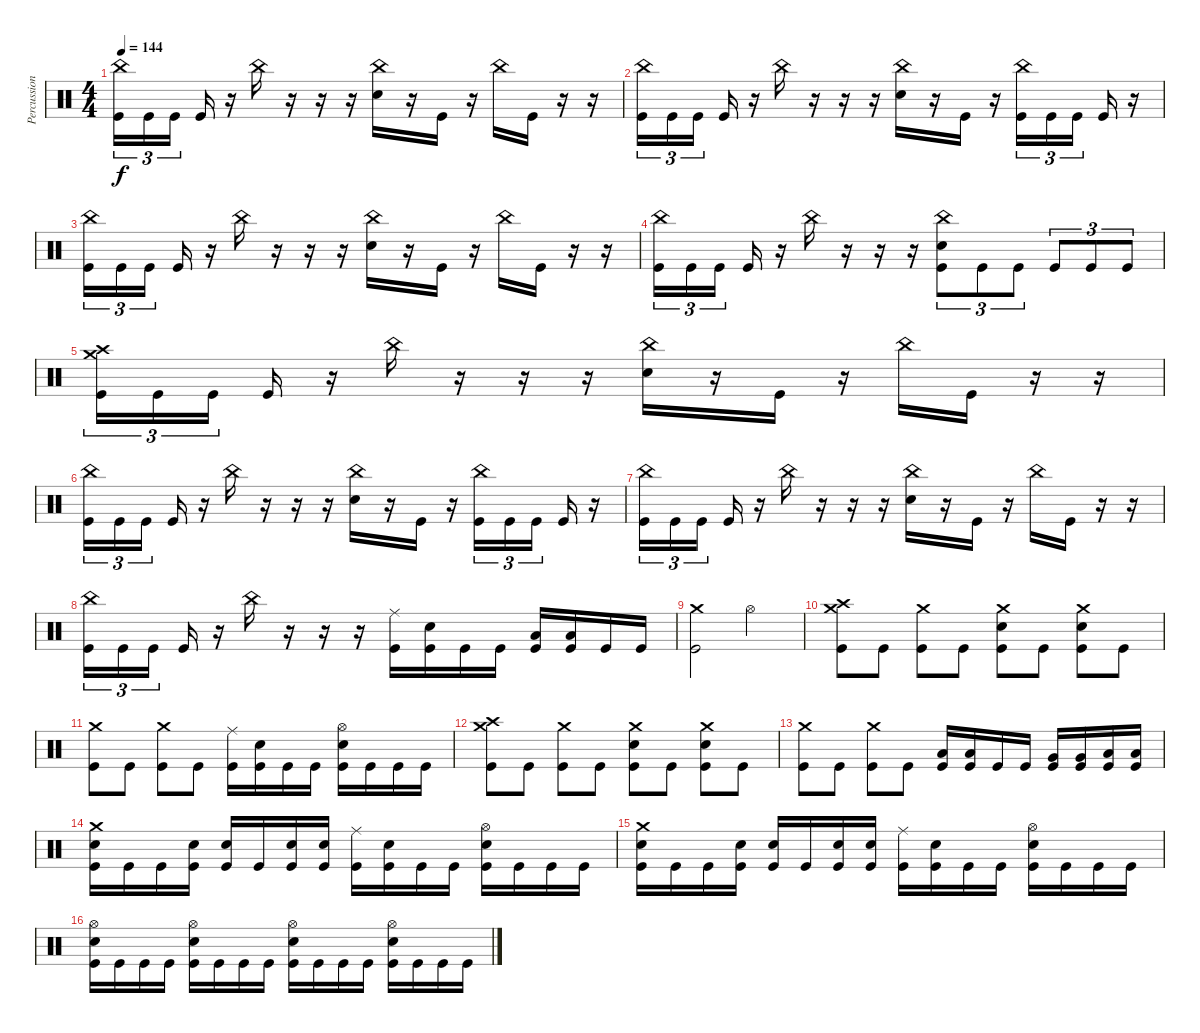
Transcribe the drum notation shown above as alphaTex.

\track ("Percussion" "Percussion") {instrument percussion}
\staff {score}
\articulation defaults
\ts (4 4)
\tempo 144
\clef neutral
\ks c
("China (hit)" "Kick (hit)").16{tu (3 2) dy f} "Kick (hit)".16{tu (3 2)} "Kick (hit)".16{tu (3 2) beam splitsecondary} "Kick (hit)".16 r.16 "China (hit)".16 r.16 r.16 r.16 ("China (hit)" "Electric Snare (hit)").16 r.16 "Kick (hit)".16 r.16 "China (hit)".16 "Kick (hit)".16 r.16 r.16 |
("China (hit)" "Kick (hit)").16{tu (3 2)} "Kick (hit)".16{tu (3 2)} "Kick (hit)".16{tu (3 2) beam splitsecondary} "Kick (hit)".16 r.16 "China (hit)".16 r.16 r.16 r.16 ("China (hit)" "Electric Snare (hit)").16 r.16 "Kick (hit)".16 r.16 ("China (hit)" "Kick (hit)").16{tu (3 2)} "Kick (hit)".16{tu (3 2)} "Kick (hit)".16{tu (3 2) beam splitsecondary} "Kick (hit)".16 r.16 |
("China (hit)" "Kick (hit)").16{tu (3 2)} "Kick (hit)".16{tu (3 2)} "Kick (hit)".16{tu (3 2) beam splitsecondary} "Kick (hit)".16 r.16 "China (hit)".16 r.16 r.16 r.16 ("China (hit)" "Electric Snare (hit)").16 r.16 "Kick (hit)".16 r.16 "China (hit)".16 "Kick (hit)".16 r.16 r.16 |
("China (hit)" "Kick (hit)").16{tu (3 2)} "Kick (hit)".16{tu (3 2)} "Kick (hit)".16{tu (3 2) beam splitsecondary} "Kick (hit)".16 r.16 "China (hit)".16 r.16 r.16 r.16 ("China (hit)" "Electric Snare (hit)" "Kick (hit)").8{tu (3 2)} "Kick (hit)".8{tu (3 2)} "Kick (hit)".8{tu (3 2)} "Kick (hit)".8{tu (3 2)} "Kick (hit)".8{tu (3 2)} "Kick (hit)".8{tu (3 2)} |
("Crash high (hit)" "Crash medium (hit)" "Kick (hit)").16{tu (3 2)} "Kick (hit)".16{tu (3 2)} "Kick (hit)".16{tu (3 2) beam splitsecondary} "Kick (hit)".16 r.16 "China (hit)".16 r.16 r.16 r.16 ("China (hit)" "Electric Snare (hit)").16 r.16 "Kick (hit)".16 r.16 "China (hit)".16 "Kick (hit)".16 r.16 r.16 |
("China (hit)" "Kick (hit)").16{tu (3 2)} "Kick (hit)".16{tu (3 2)} "Kick (hit)".16{tu (3 2) beam splitsecondary} "Kick (hit)".16 r.16 "China (hit)".16 r.16 r.16 r.16 ("China (hit)" "Electric Snare (hit)").16 r.16 "Kick (hit)".16 r.16 ("China (hit)" "Kick (hit)").16{tu (3 2)} "Kick (hit)".16{tu (3 2)} "Kick (hit)".16{tu (3 2) beam splitsecondary} "Kick (hit)".16 r.16 |
("China (hit)" "Kick (hit)").16{tu (3 2)} "Kick (hit)".16{tu (3 2)} "Kick (hit)".16{tu (3 2) beam splitsecondary} "Kick (hit)".16 r.16 "China (hit)".16 r.16 r.16 r.16 ("China (hit)" "Electric Snare (hit)").16 r.16 "Kick (hit)".16 r.16 "China (hit)".16 "Kick (hit)".16 r.16 r.16 |
("China (hit)" "Kick (hit)").16{tu (3 2)} "Kick (hit)".16{tu (3 2)} "Kick (hit)".16{tu (3 2) beam splitsecondary} "Kick (hit)".16 r.16 "China (hit)".16 r.16 r.16 r.16 ("Ride (middle)" "Kick (hit)").16 ("Electric Snare (hit)" "Kick (hit)").16 "Kick (hit)".16 "Kick (hit)".16 ("Low Tom (hit)" "Kick (hit)").16 ("Low Tom (hit)" "Kick (hit)").16 "Kick (hit)".16 "Kick (hit)".16 |
("Crash medium (hit)" "Kick (hit)").2 "Hi-Hat (open)".2 |
("Crash medium (hit)" "Crash high (hit)" "Kick (hit)").8 "Kick (hit)".8 ("Crash medium (hit)" "Kick (hit)").8 "Kick (hit)".8 ("Crash medium (hit)" "Electric Snare (hit)" "Kick (hit)").8 "Kick (hit)".8 ("Crash medium (hit)" "Electric Snare (hit)" "Kick (hit)").8 "Kick (hit)".8 |
("Crash medium (hit)" "Kick (hit)").8 "Kick (hit)".8 ("Crash medium (hit)" "Kick (hit)").8 "Kick (hit)".8 ("Ride (middle)" "Kick (hit)").16 ("Electric Snare (hit)" "Kick (hit)").16 "Kick (hit)".16 "Kick (hit)".16 ("Hi-Hat (open)" "Electric Snare (hit)" "Kick (hit)").16 "Kick (hit)".16 "Kick (hit)".16 "Kick (hit)".16 |
("Crash medium (hit)" "Crash high (hit)" "Kick (hit)").8 "Kick (hit)".8 ("Crash medium (hit)" "Kick (hit)").8 "Kick (hit)".8 ("Crash medium (hit)" "Electric Snare (hit)" "Kick (hit)").8 "Kick (hit)".8 ("Crash medium (hit)" "Electric Snare (hit)" "Kick (hit)").8 "Kick (hit)".8 |
("Crash medium (hit)" "Kick (hit)").8 "Kick (hit)".8 ("Crash medium (hit)" "Kick (hit)").8 "Kick (hit)".8 ("Low Tom (hit)" "Kick (hit)").16 ("Low Tom (hit)" "Kick (hit)").16 "Kick (hit)".16 "Kick (hit)".16 ("Very Low Tom (hit)" "Kick (hit)").16 ("Very Low Tom (hit)" "Kick (hit)").16 ("Low Floor Tom (hit)" "Kick (hit)").16 ("Low Floor Tom (hit)" "Kick (hit)").16 |
("Crash medium (hit)" "Electric Snare (hit)" "Kick (hit)").16 "Kick (hit)".16 "Kick (hit)".16 ("Electric Snare (hit)" "Kick (hit)").16 ("Electric Snare (hit)" "Kick (hit)").16 "Kick (hit)".16 ("Electric Snare (hit)" "Kick (hit)").16 ("Electric Snare (hit)" "Kick (hit)").16 ("Ride (middle)" "Kick (hit)").16 ("Electric Snare (hit)" "Kick (hit)").16 "Kick (hit)".16 "Kick (hit)".16 ("Hi-Hat (open)" "Electric Snare (hit)" "Kick (hit)").16 "Kick (hit)".16 "Kick (hit)".16 "Kick (hit)".16 |
("Crash medium (hit)" "Electric Snare (hit)" "Kick (hit)").16 "Kick (hit)".16 "Kick (hit)".16 ("Electric Snare (hit)" "Kick (hit)").16 ("Electric Snare (hit)" "Kick (hit)").16 "Kick (hit)".16 ("Electric Snare (hit)" "Kick (hit)").16 ("Electric Snare (hit)" "Kick (hit)").16 ("Ride (middle)" "Kick (hit)").16 ("Electric Snare (hit)" "Kick (hit)").16 "Kick (hit)".16 "Kick (hit)".16 ("Hi-Hat (open)" "Electric Snare (hit)" "Kick (hit)").16 "Kick (hit)".16 "Kick (hit)".16 "Kick (hit)".16 |
("Hi-Hat (open)" "Electric Snare (hit)" "Kick (hit)").16 "Kick (hit)".16 "Kick (hit)".16 "Kick (hit)".16 ("Hi-Hat (open)" "Electric Snare (hit)" "Kick (hit)").16 "Kick (hit)".16 "Kick (hit)".16 "Kick (hit)".16 ("Hi-Hat (open)" "Electric Snare (hit)" "Kick (hit)").16 "Kick (hit)".16 "Kick (hit)".16 "Kick (hit)".16 ("Hi-Hat (open)" "Electric Snare (hit)" "Kick (hit)").16 "Kick (hit)".16 "Kick (hit)".16 "Kick (hit)".16
